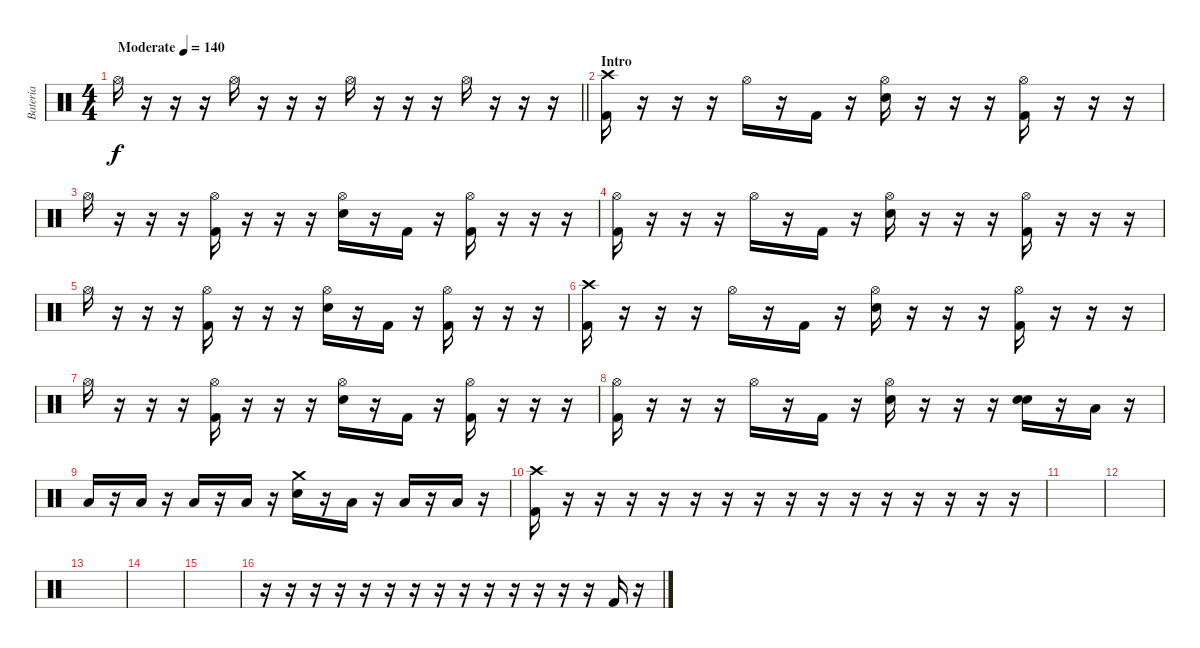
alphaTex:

\track ("Bateria" "Bateria") {instrument percussion}
\staff {score}
\articulation defaults
\ts (4 4)
\tempo (140 "Moderate")
\clef neutral
\barLineRight lightlight
\ks c "Hi-Hat (open)".16{dy f}
r.16 r.16 r.16 "Hi-Hat (open)".16 r.16 r.16 r.16 "Hi-Hat (open)".16 r.16 r.16 r.16 "Hi-Hat (open)".16 r.16 r.16 r.16 |
\section ("" "Intro")
("Crash high (hit)" "Kick (hit) 2").16 r.16 r.16 r.16 "Hi-Hat (open)".16 r.16 "Kick (hit) 2".16 r.16 ("Hi-Hat (open)" "Snare (hit) 2").16 r.16 r.16 r.16 ("Hi-Hat (open)" "Kick (hit) 2").16 r.16 r.16 r.16 |
"Hi-Hat (open)".16 r.16 r.16 r.16 ("Hi-Hat (open)" "Kick (hit) 2").16 r.16 r.16 r.16 ("Hi-Hat (open)" "Snare (hit) 2").16 r.16 "Kick (hit) 2".16 r.16 ("Hi-Hat (open)" "Kick (hit) 2").16 r.16 r.16 r.16 |
("Hi-Hat (open)" "Kick (hit) 2").16 r.16 r.16 r.16 "Hi-Hat (open)".16 r.16 "Kick (hit) 2".16 r.16 ("Hi-Hat (open)" "Snare (hit) 2").16 r.16 r.16 r.16 ("Hi-Hat (open)" "Kick (hit) 2").16 r.16 r.16 r.16 |
"Hi-Hat (open)".16 r.16 r.16 r.16 ("Hi-Hat (open)" "Kick (hit) 2").16 r.16 r.16 r.16 ("Hi-Hat (open)" "Snare (hit) 2").16 r.16 "Kick (hit) 2".16 r.16 ("Hi-Hat (open)" "Kick (hit) 2").16 r.16 r.16 r.16 |
("Crash high (hit)" "Kick (hit) 2").16 r.16 r.16 r.16 "Hi-Hat (open)".16 r.16 "Kick (hit) 2".16 r.16 ("Hi-Hat (open)" "Snare (hit) 2").16 r.16 r.16 r.16 ("Hi-Hat (open)" "Kick (hit) 2").16 r.16 r.16 r.16 |
"Hi-Hat (open)".16 r.16 r.16 r.16 ("Hi-Hat (open)" "Kick (hit) 2").16 r.16 r.16 r.16 ("Hi-Hat (open)" "Snare (hit) 2").16 r.16 "Kick (hit) 2".16 r.16 ("Hi-Hat (open)" "Kick (hit) 2").16 r.16 r.16 r.16 |
("Hi-Hat (open)" "Kick (hit) 2").16 r.16 r.16 r.16 "Hi-Hat (open)".16 r.16 "Kick (hit) 2".16 r.16 ("Hi-Hat (open)" "Snare (hit) 2").16 r.16 r.16 r.16 ("Electric Snare (hit)" "Snare (hit) 2").16 r.16 "Low Tom (hit)".16 r.16 |
"Low Floor Tom (hit)".16 r.16 "Low Floor Tom (hit)".16 r.16 "Low Tom (hit)".16 r.16 "Low Floor Tom (hit)".16 r.16 ("Crash medium (hit)" "Snare (hit) 2").16 r.16 "Low Floor Tom (hit)".16 r.16 "Low Tom (hit)".16 r.16 "Low Floor Tom (hit)".16 r.16 |
("Crash high (hit)" "Kick (hit) 2").16 r.16 r.16 r.16 r.16 r.16 r.16 r.16 r.16 r.16 r.16 r.16 r.16 r.16 r.16 r.16 |
|
|
|
|
|
r.16 r.16 r.16 r.16 r.16 r.16 r.16 r.16 r.16 r.16 r.16 r.16 r.16 r.16 "Kick (hit) 2".16 r.16
